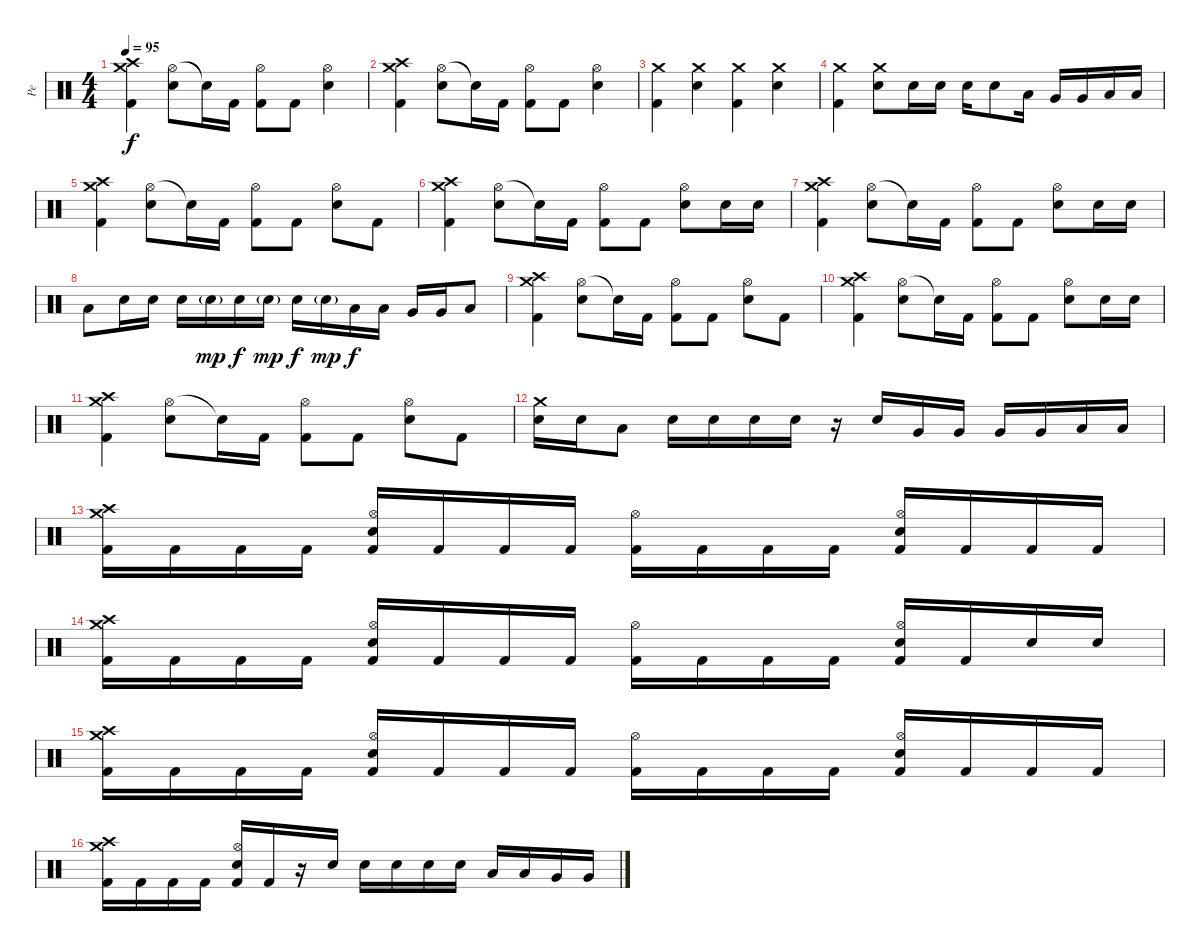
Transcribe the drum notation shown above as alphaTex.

\track ("Pe" "Pe") {instrument percussion}
\staff {score}
\articulation defaults
\ts (4 4)
\tempo 95
\clef neutral
\ks c
("Crash medium (hit)" "Crash high (hit)" "Kick (hit) 2").4{dy f} ("Hi-Hat (open)" "Electric Snare (hit)").8 "Snare (hit)"{t}.16 "Kick (hit) 2".16 ("Hi-Hat (open)" "Kick (hit) 2").8 "Kick (hit) 2".8 ("Hi-Hat (open)" "Electric Snare (hit)").4 |
("Crash medium (hit)" "Crash high (hit)" "Kick (hit) 2").4 ("Hi-Hat (open)" "Electric Snare (hit)").8 "Snare (hit)"{t}.16 "Kick (hit) 2".16 ("Hi-Hat (open)" "Kick (hit) 2").8 "Kick (hit) 2".8 ("Hi-Hat (open)" "Electric Snare (hit)").4 |
("Crash medium (hit)" "Kick (hit) 2").4 ("Crash medium (hit)" "Electric Snare (hit)").4 ("Crash medium (hit)" "Kick (hit) 2").4 ("Crash medium (hit)" "Electric Snare (hit)").4 |
("Crash medium (hit)" "Kick (hit) 2").4 ("Crash medium (hit)" "Electric Snare (hit)").8 "Electric Snare (hit)".16 "Electric Snare (hit)".16 "Electric Snare (hit)".16 "Electric Snare (hit)".8 "Low Tom (hit)".16 "Very Low Tom (hit)".16 "Very Low Tom (hit)".16 "Low Floor Tom (hit)".16 "Low Floor Tom (hit)".16 |
("Crash medium (hit)" "Crash high (hit)" "Kick (hit) 2").4 ("Hi-Hat (open)" "Electric Snare (hit)").8 "Snare (hit)"{t}.16 "Kick (hit) 2".16 ("Hi-Hat (open)" "Kick (hit) 2").8 "Kick (hit) 2".8 ("Hi-Hat (open)" "Electric Snare (hit)").8 "Kick (hit) 2".8 |
("Crash medium (hit)" "Crash high (hit)" "Kick (hit) 2").4 ("Hi-Hat (open)" "Electric Snare (hit)").8 "Snare (hit)"{t}.16 "Kick (hit) 2".16 ("Hi-Hat (open)" "Kick (hit) 2").8 "Kick (hit) 2".8 ("Hi-Hat (open)" "Electric Snare (hit)").8 "Electric Snare (hit)".16 "Electric Snare (hit)".16 |
("Crash medium (hit)" "Crash high (hit)" "Kick (hit) 2").4 ("Hi-Hat (open)" "Electric Snare (hit)").8 "Snare (hit)"{t}.16 "Kick (hit) 2".16 ("Hi-Hat (open)" "Kick (hit) 2").8 "Kick (hit) 2".8 ("Hi-Hat (open)" "Electric Snare (hit)").8 "Electric Snare (hit)".16 "Electric Snare (hit)".16 |
"Low Tom (hit)".8 "Electric Snare (hit)".16 "Electric Snare (hit)".16 "Electric Snare (hit)".16 "Electric Snare (hit)"{g}.16{dy mp} "Electric Snare (hit)".16{dy f} "Electric Snare (hit)"{g}.16{dy mp} "Electric Snare (hit)".16{dy f} "Electric Snare (hit)"{g}.16{dy mp} "Low Tom (hit)".16{dy f} "Low Tom (hit)".16 "Very Low Tom (hit)".16 "Very Low Tom (hit)".16 "Low Floor Tom (hit)".8 |
("Crash medium (hit)" "Crash high (hit)" "Kick (hit) 2").4 ("Hi-Hat (open)" "Electric Snare (hit)").8 "Snare (hit)"{t}.16 "Kick (hit) 2".16 ("Hi-Hat (open)" "Kick (hit) 2").8 "Kick (hit) 2".8 ("Hi-Hat (open)" "Electric Snare (hit)").8 "Kick (hit) 2".8 |
("Crash medium (hit)" "Crash high (hit)" "Kick (hit) 2").4 ("Hi-Hat (open)" "Electric Snare (hit)").8 "Snare (hit)"{t}.16 "Kick (hit) 2".16 ("Hi-Hat (open)" "Kick (hit) 2").8 "Kick (hit) 2".8 ("Hi-Hat (open)" "Electric Snare (hit)").8 "Electric Snare (hit)".16 "Electric Snare (hit)".16 |
("Crash medium (hit)" "Crash high (hit)" "Kick (hit) 2").4 ("Hi-Hat (open)" "Electric Snare (hit)").8 "Snare (hit)"{t}.16 "Kick (hit) 2".16 ("Hi-Hat (open)" "Kick (hit) 2").8 "Kick (hit) 2".8 ("Hi-Hat (open)" "Electric Snare (hit)").8 "Kick (hit) 2".8 |
("Crash medium (hit)" "Electric Snare (hit)").16 "Electric Snare (hit)".16 "Low Tom (hit)".8 "Electric Snare (hit)".16 "Electric Snare (hit)".16 "Electric Snare (hit)".16 "Electric Snare (hit)".16 r.16 "Electric Snare (hit)".16 "Very Low Tom (hit)".16 "Very Low Tom (hit)".16 "Very Low Tom (hit)".16 "Very Low Tom (hit)".16 "Low Floor Tom (hit)".16 "Low Floor Tom (hit)".16 |
("Crash medium (hit)" "Crash high (hit)" "Kick (hit) 2").16 "Kick (hit) 2".16 "Kick (hit) 2".16 "Kick (hit) 2".16 ("Hi-Hat (open)" "Electric Snare (hit)" "Kick (hit) 2").16 "Kick (hit) 2".16 "Kick (hit) 2".16 "Kick (hit) 2".16 ("Hi-Hat (open)" "Kick (hit) 2").16 "Kick (hit) 2".16 "Kick (hit) 2".16 "Kick (hit) 2".16 ("Hi-Hat (open)" "Electric Snare (hit)" "Kick (hit) 2").16 "Kick (hit) 2".16 "Kick (hit) 2".16 "Kick (hit) 2".16 |
("Crash medium (hit)" "Crash high (hit)" "Kick (hit) 2").16 "Kick (hit) 2".16 "Kick (hit) 2".16 "Kick (hit) 2".16 ("Hi-Hat (open)" "Electric Snare (hit)" "Kick (hit) 2").16 "Kick (hit) 2".16 "Kick (hit) 2".16 "Kick (hit) 2".16 ("Hi-Hat (open)" "Kick (hit) 2").16 "Kick (hit) 2".16 "Kick (hit) 2".16 "Kick (hit) 2".16 ("Hi-Hat (open)" "Electric Snare (hit)" "Kick (hit) 2").16 "Kick (hit) 2".16 "Electric Snare (hit)".16 "Electric Snare (hit)".16 |
("Crash medium (hit)" "Crash high (hit)" "Kick (hit) 2").16 "Kick (hit) 2".16 "Kick (hit) 2".16 "Kick (hit) 2".16 ("Hi-Hat (open)" "Electric Snare (hit)" "Kick (hit) 2").16 "Kick (hit) 2".16 "Kick (hit) 2".16 "Kick (hit) 2".16 ("Hi-Hat (open)" "Kick (hit) 2").16 "Kick (hit) 2".16 "Kick (hit) 2".16 "Kick (hit) 2".16 ("Hi-Hat (open)" "Electric Snare (hit)" "Kick (hit) 2").16 "Kick (hit) 2".16 "Kick (hit) 2".16 "Kick (hit) 2".16 |
("Crash medium (hit)" "Crash high (hit)" "Kick (hit) 2").16 "Kick (hit) 2".16 "Kick (hit) 2".16 "Kick (hit) 2".16 ("Hi-Hat (open)" "Electric Snare (hit)" "Kick (hit) 2").16 "Kick (hit) 2".16 r.16 "Electric Snare (hit)".16 "Electric Snare (hit)".16 "Electric Snare (hit)".16 "Electric Snare (hit)".16 "Electric Snare (hit)".16 "Low Tom (hit)".16 "Low Tom (hit)".16 "Very Low Tom (hit)".16 "Very Low Tom (hit)".16
